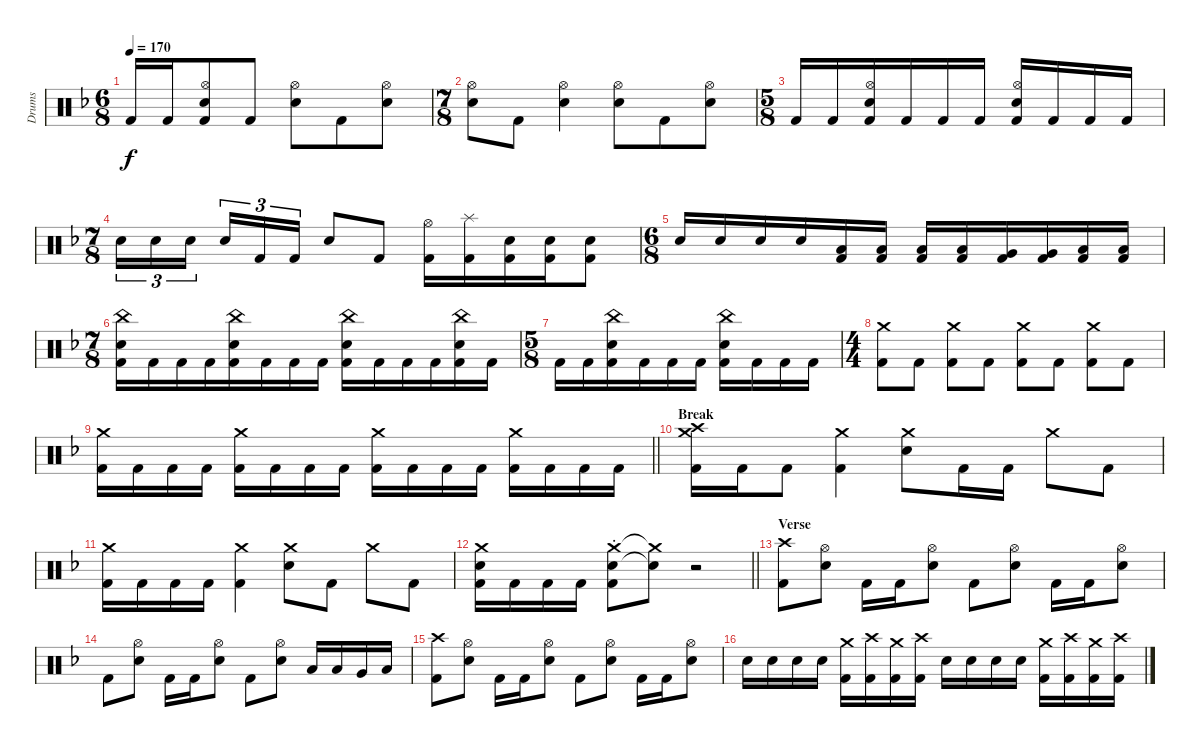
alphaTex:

\track ("Drums" "Drums") {instrument percussion}
\staff {score}
\articulation defaults
\ts (6 8)
\tempo 170
\clef neutral
\ks dminor "Kick (hit) 2".16{dy f} "Kick (hit) 2".16
("Hi-Hat (open)" "Electric Snare (hit)" "Kick (hit) 2").8 "Kick (hit) 2".8 ("Hi-Hat (open)" "Electric Snare (hit)").8 "Kick (hit) 2".8 ("Hi-Hat (open)" "Electric Snare (hit)").8 |
\ts (7 8)
("Hi-Hat (open)" "Electric Snare (hit)").8 "Kick (hit) 2".8 ("Hi-Hat (open)" "Electric Snare (hit)").4 ("Hi-Hat (open)" "Electric Snare (hit)").8 "Kick (hit) 2".8 ("Hi-Hat (open)" "Electric Snare (hit)").8 |
\ts (5 8)
"Kick (hit) 2".16 "Kick (hit) 2".16 ("Hi-Hat (open)" "Electric Snare (hit)" "Kick (hit) 2").16 "Kick (hit) 2".16 "Kick (hit) 2".16 "Kick (hit) 2".16 ("Hi-Hat (open)" "Electric Snare (hit)" "Kick (hit) 2").16 "Kick (hit) 2".16 "Kick (hit) 2".16 "Kick (hit) 2".16 |
\ts (7 8)
"Electric Snare (hit)".16{tu (3 2)} "Electric Snare (hit)".16{tu (3 2)} "Electric Snare (hit)".16{tu (3 2)} "Electric Snare (hit)".16{tu (3 2)} "Kick (hit) 2".16{tu (3 2)} "Kick (hit) 2".16{tu (3 2)} "Electric Snare (hit)".8 "Kick (hit) 2".8 ("Hi-Hat (open)" "Kick (hit) 2").16 ("Splash (hit)" "Kick (hit) 2").16 ("Electric Snare (hit)" "Kick (hit) 2").16 ("Electric Snare (hit)" "Kick (hit) 2").16 ("Electric Snare (hit)" "Kick (hit) 2").8 |
\ts (6 8)
"Electric Snare (hit)".16 "Electric Snare (hit)".16 "Electric Snare (hit)".16 "Electric Snare (hit)".16 ("Low Tom (hit)" "Kick (hit) 2").16 ("Low Tom (hit)" "Kick (hit) 2").16 ("Low Tom (hit)" "Kick (hit) 2").16 ("Low Tom (hit)" "Kick (hit) 2").16 ("Very Low Tom (hit)" "Kick (hit) 2").16 ("Very Low Tom (hit)" "Kick (hit) 2").16 ("Low Floor Tom (hit)" "Kick (hit) 2").16 ("Low Floor Tom (hit)" "Kick (hit) 2").16 |
\ts (7 8)
("China (hit)" "Electric Snare (hit)" "Kick (hit) 2").16 "Kick (hit) 2".16 "Kick (hit) 2".16 "Kick (hit) 2".16 ("China (hit)" "Electric Snare (hit)" "Kick (hit) 2").16 "Kick (hit) 2".16 "Kick (hit) 2".16 "Kick (hit) 2".16 ("China (hit)" "Electric Snare (hit)" "Kick (hit) 2").16 "Kick (hit) 2".16 "Kick (hit) 2".16 "Kick (hit) 2".16 ("China (hit)" "Electric Snare (hit)" "Kick (hit) 2").16 "Kick (hit) 2".16 |
\ts (5 8)
"Kick (hit) 2".16 "Kick (hit) 2".16 ("China (hit)" "Electric Snare (hit)" "Kick (hit) 2").16 "Kick (hit) 2".16 "Kick (hit) 2".16 "Kick (hit) 2".16 ("China (hit)" "Electric Snare (hit)" "Kick (hit) 2").16 "Kick (hit) 2".16 "Kick (hit) 2".16 "Kick (hit) 2".16 |
\ts (4 4)
("Crash medium (hit)" "Kick (hit) 2").8 "Kick (hit) 2".8 ("Crash medium (hit)" "Kick (hit) 2").8 "Kick (hit) 2".8 ("Crash medium (hit)" "Kick (hit) 2").8 "Kick (hit) 2".8 ("Crash medium (hit)" "Kick (hit) 2").8 "Kick (hit) 2".8 |
\barLineRight lightlight
("Crash medium (hit)" "Kick (hit) 2").16 "Kick (hit) 2".16 "Kick (hit) 2".16 "Kick (hit) 2".16 ("Crash medium (hit)" "Kick (hit) 2").16 "Kick (hit) 2".16 "Kick (hit) 2".16 "Kick (hit) 2".16 ("Crash medium (hit)" "Kick (hit) 2").16 "Kick (hit) 2".16 "Kick (hit) 2".16 "Kick (hit) 2".16 ("Crash medium (hit)" "Kick (hit) 2").16 "Kick (hit) 2".16 "Kick (hit) 2".16 "Kick (hit) 2".16 |
\section ("" "Break")
("Crash medium (hit)" "Crash high (hit)" "Kick (hit) 2").16 "Kick (hit) 2".16 "Kick (hit) 2".8 ("Crash medium (hit)" "Kick (hit) 2").4 ("Crash medium (hit)" "Electric Snare (hit)").8 "Kick (hit) 2".16 "Kick (hit) 2".16 "Crash medium (hit)".8 "Kick (hit) 2".8 |
("Crash medium (hit)" "Kick (hit) 2").16 "Kick (hit) 2".16 "Kick (hit) 2".16 "Kick (hit) 2".16 ("Crash medium (hit)" "Kick (hit) 2").4 ("Crash medium (hit)" "Electric Snare (hit)").8 "Kick (hit) 2".8 "Crash medium (hit)".8 "Kick (hit) 2".8 |
\barLineRight lightlight
("Crash medium (hit)" "Electric Snare (hit)" "Kick (hit) 2").16 "Kick (hit) 2".16 "Kick (hit) 2".16 "Kick (hit) 2".16 ("Crash medium (hit)"{st} "Electric Snare (hit)" "Kick (hit) 2").8 ("Crash medium (hit)"{t} "Electric Snare (hit)"{t}).8{volume 0} r.2 |
\section ("" "Verse")
("Crash high (hit)" "Kick (hit) 2").8{volume 14} ("Hi-Hat (open)" "Electric Snare (hit)").8 "Kick (hit) 2".16 "Kick (hit) 2".16 ("Hi-Hat (open)" "Electric Snare (hit)").8 "Kick (hit) 2".8 ("Hi-Hat (open)" "Electric Snare (hit)").8 "Kick (hit) 2".16 "Kick (hit) 2".16 ("Hi-Hat (open)" "Electric Snare (hit)").8 |
"Kick (hit) 2".8 ("Hi-Hat (open)" "Electric Snare (hit)").8 "Kick (hit) 2".16 "Kick (hit) 2".16 ("Hi-Hat (open)" "Electric Snare (hit)").8 "Kick (hit) 2".8 ("Hi-Hat (open)" "Electric Snare (hit)").8 "Low Tom (hit)".16 "Low Tom (hit)".16 "Very Low Tom (hit)".16 "Low Floor Tom (hit)".16 |
("Crash high (hit)" "Kick (hit) 2").8 ("Hi-Hat (open)" "Electric Snare (hit)").8 "Kick (hit) 2".16 "Kick (hit) 2".16 ("Hi-Hat (open)" "Electric Snare (hit)").8 "Kick (hit) 2".8 ("Hi-Hat (open)" "Electric Snare (hit)").8 "Kick (hit) 2".16 "Kick (hit) 2".16 ("Hi-Hat (open)" "Electric Snare (hit)").8 |
"Electric Snare (hit)".16 "Electric Snare (hit)".16 "Electric Snare (hit)".16 "Electric Snare (hit)".16 ("Crash medium (hit)" "Kick (hit) 2").16 ("Crash high (hit)" "Kick (hit) 2").16 ("Crash medium (hit)" "Kick (hit) 2").16 ("Crash high (hit)" "Kick (hit) 2").16 "Electric Snare (hit)".16 "Electric Snare (hit)".16 "Electric Snare (hit)".16 "Electric Snare (hit)".16 ("Crash medium (hit)" "Kick (hit) 2").16 ("Crash high (hit)" "Kick (hit) 2").16 ("Crash medium (hit)" "Kick (hit) 2").16 ("Crash high (hit)" "Kick (hit) 2").16
